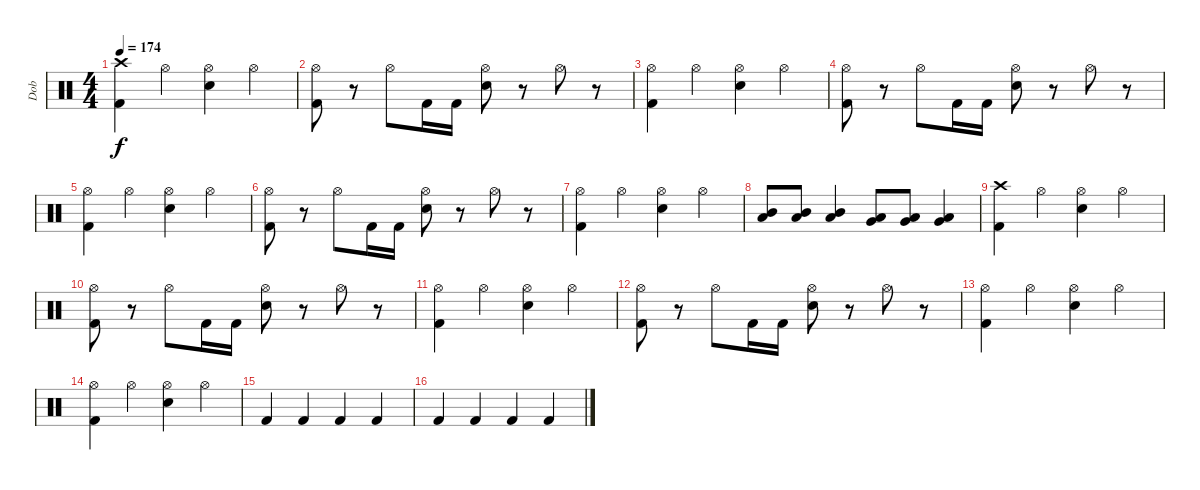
\track ("Dob" "Dob") {instrument percussion}
\staff {score}
\articulation defaults
\ts (4 4)
\tempo 174
\clef neutral
\ks c
("Crash high (hit)" "Kick (hit) 2").4{dy f} "Hi-Hat (open)".4 ("Hi-Hat (open)" "Snare (hit) 2").4 "Hi-Hat (open)".4 |
("Hi-Hat (open)" "Kick (hit) 2").8 r.8 "Hi-Hat (open)".8 "Kick (hit) 2".16 "Kick (hit) 2".16 ("Hi-Hat (open)" "Snare (hit) 2").8 r.8 "Hi-Hat (open)".8 r.8 |
("Hi-Hat (open)" "Kick (hit) 2").4 "Hi-Hat (open)".4 ("Hi-Hat (open)" "Snare (hit) 2").4 "Hi-Hat (open)".4 |
("Hi-Hat (open)" "Kick (hit) 2").8 r.8 "Hi-Hat (open)".8 "Kick (hit) 2".16 "Kick (hit) 2".16 ("Hi-Hat (open)" "Snare (hit) 2").8 r.8 "Hi-Hat (open)".8 r.8 |
("Hi-Hat (open)" "Kick (hit) 2").4 "Hi-Hat (open)".4 ("Hi-Hat (open)" "Snare (hit) 2").4 "Hi-Hat (open)".4 |
("Hi-Hat (open)" "Kick (hit) 2").8 r.8 "Hi-Hat (open)".8 "Kick (hit) 2".16 "Kick (hit) 2".16 ("Hi-Hat (open)" "Snare (hit) 2").8 r.8 "Hi-Hat (open)".8 r.8 |
("Hi-Hat (open)" "Kick (hit) 2").4 "Hi-Hat (open)".4 ("Hi-Hat (open)" "Snare (hit) 2").4 "Hi-Hat (open)".4 |
("Mid Tom (hit)" "Low Tom (hit)").8 ("Mid Tom (hit)" "Low Tom (hit)").8 ("Mid Tom (hit)" "Low Tom (hit)").4 ("Low Tom (hit)" "Very Low Tom (hit)").8 ("Low Tom (hit)" "Very Low Tom (hit)").8 ("Low Tom (hit)" "Very Low Tom (hit)").4 |
("Crash high (hit)" "Kick (hit) 2").4 "Hi-Hat (open)".4 ("Hi-Hat (open)" "Snare (hit) 2").4 "Hi-Hat (open)".4 |
("Hi-Hat (open)" "Kick (hit) 2").8 r.8 "Hi-Hat (open)".8 "Kick (hit) 2".16 "Kick (hit) 2".16 ("Hi-Hat (open)" "Snare (hit) 2").8 r.8 "Hi-Hat (open)".8 r.8 |
("Hi-Hat (open)" "Kick (hit) 2").4 "Hi-Hat (open)".4 ("Hi-Hat (open)" "Snare (hit) 2").4 "Hi-Hat (open)".4 |
("Hi-Hat (open)" "Kick (hit) 2").8 r.8 "Hi-Hat (open)".8 "Kick (hit) 2".16 "Kick (hit) 2".16 ("Hi-Hat (open)" "Snare (hit) 2").8 r.8 "Hi-Hat (open)".8 r.8 |
("Hi-Hat (open)" "Kick (hit) 2").4 "Hi-Hat (open)".4 ("Hi-Hat (open)" "Snare (hit) 2").4 "Hi-Hat (open)".4 |
("Hi-Hat (open)" "Kick (hit) 2").4 "Hi-Hat (open)".4 ("Hi-Hat (open)" "Snare (hit) 2").4 "Hi-Hat (open)".4 |
"Kick (hit) 2".4 "Kick (hit) 2".4 "Kick (hit) 2".4 "Kick (hit) 2".4 |
"Kick (hit) 2".4 "Kick (hit) 2".4 "Kick (hit) 2".4 "Kick (hit) 2".4
